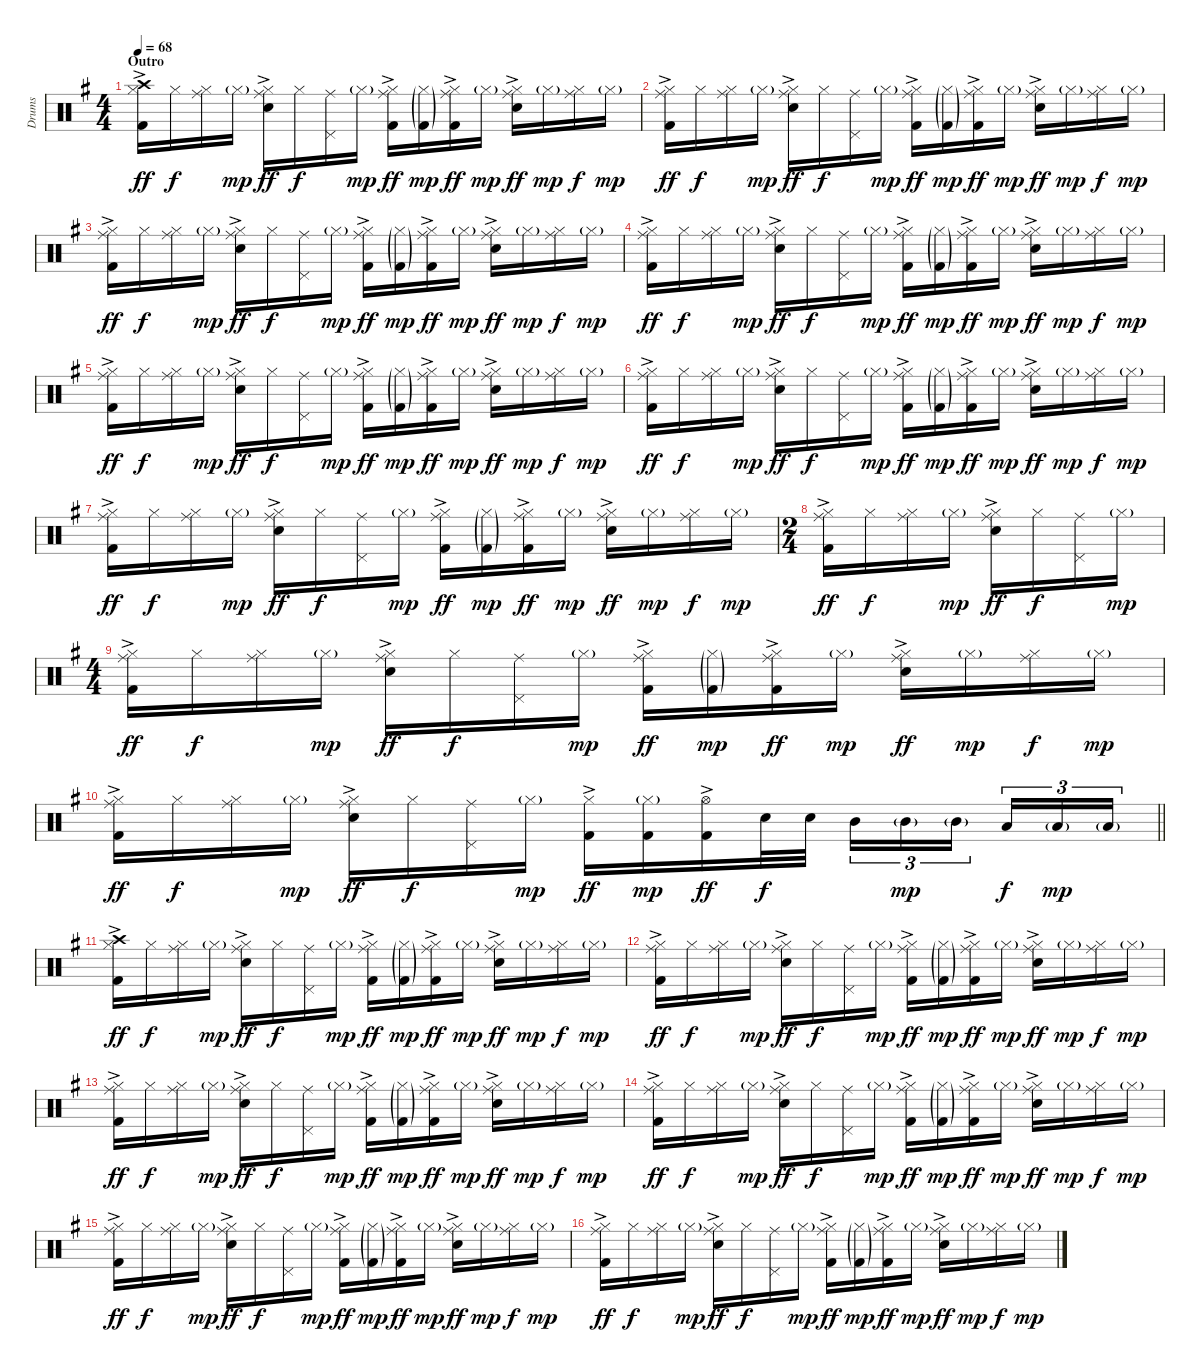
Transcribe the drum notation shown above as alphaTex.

\track ("Drums" "Drums") {instrument percussion}
\staff {score}
\articulation defaults
\ts (4 4)
\section ("" "Outro")
\tempo 68
\clef neutral
\ks g
("Hi-Hat (closed)" "Crash high (hit)" "Kick (hit) 2"{ac}).16{dy ff} "Hi-Hat (closed)".16{dy f} ("Hi-Hat (closed)" "Ride (middle)").16 "Hi-Hat (closed)"{g}.16{dy mp} ("Hi-Hat (closed)" "Ride (middle)" "Snare (hit) 2"{ac}).16{dy ff} "Hi-Hat (closed)".16{dy f} ("Pedal Hi-Hat (hit)" "Ride (middle)").16 "Hi-Hat (closed)"{g}.16{dy mp} ("Hi-Hat (closed)" "Ride (middle)" "Kick (hit) 2"{ac}).16{dy ff} ("Hi-Hat (closed)"{g} "Kick (hit) 2"{g}).16{dy mp} ("Hi-Hat (closed)" "Ride (middle)" "Kick (hit) 2"{ac}).16{dy ff} "Hi-Hat (closed)"{g}.16{dy mp} ("Hi-Hat (closed)" "Ride (middle)" "Snare (hit) 2"{ac}).16{dy ff} "Hi-Hat (closed)"{g}.16{dy mp} ("Hi-Hat (closed)" "Ride (middle)").16{dy f} "Hi-Hat (closed)"{g}.16{dy mp} |
("Hi-Hat (closed)" "Ride (middle)" "Kick (hit) 2"{ac}).16{dy ff} "Hi-Hat (closed)".16{dy f} ("Hi-Hat (closed)" "Ride (middle)").16 "Hi-Hat (closed)"{g}.16{dy mp} ("Hi-Hat (closed)" "Ride (middle)" "Snare (hit) 2"{ac}).16{dy ff} "Hi-Hat (closed)".16{dy f} ("Pedal Hi-Hat (hit)" "Ride (middle)").16 "Hi-Hat (closed)"{g}.16{dy mp} ("Hi-Hat (closed)" "Ride (middle)" "Kick (hit) 2"{ac}).16{dy ff} ("Hi-Hat (closed)"{g} "Kick (hit) 2"{g}).16{dy mp} ("Hi-Hat (closed)" "Ride (middle)" "Kick (hit) 2"{ac}).16{dy ff} "Hi-Hat (closed)"{g}.16{dy mp} ("Hi-Hat (closed)" "Ride (middle)" "Snare (hit) 2"{ac}).16{dy ff} "Hi-Hat (closed)"{g}.16{dy mp} ("Hi-Hat (closed)" "Ride (middle)").16{dy f} "Hi-Hat (closed)"{g}.16{dy mp} |
("Hi-Hat (closed)" "Ride (middle)" "Kick (hit) 2"{ac}).16{dy ff} "Hi-Hat (closed)".16{dy f} ("Hi-Hat (closed)" "Ride (middle)").16 "Hi-Hat (closed)"{g}.16{dy mp} ("Hi-Hat (closed)" "Ride (middle)" "Snare (hit) 2"{ac}).16{dy ff} "Hi-Hat (closed)".16{dy f} ("Pedal Hi-Hat (hit)" "Ride (middle)").16 "Hi-Hat (closed)"{g}.16{dy mp} ("Hi-Hat (closed)" "Ride (middle)" "Kick (hit) 2"{ac}).16{dy ff} ("Hi-Hat (closed)"{g} "Kick (hit) 2"{g}).16{dy mp} ("Hi-Hat (closed)" "Ride (middle)" "Kick (hit) 2"{ac}).16{dy ff} "Hi-Hat (closed)"{g}.16{dy mp} ("Hi-Hat (closed)" "Ride (middle)" "Snare (hit) 2"{ac}).16{dy ff} "Hi-Hat (closed)"{g}.16{dy mp} ("Hi-Hat (closed)" "Ride (middle)").16{dy f} "Hi-Hat (closed)"{g}.16{dy mp} |
("Hi-Hat (closed)" "Ride (middle)" "Kick (hit) 2"{ac}).16{dy ff} "Hi-Hat (closed)".16{dy f} ("Hi-Hat (closed)" "Ride (middle)").16 "Hi-Hat (closed)"{g}.16{dy mp} ("Hi-Hat (closed)" "Ride (middle)" "Snare (hit) 2"{ac}).16{dy ff} "Hi-Hat (closed)".16{dy f} ("Pedal Hi-Hat (hit)" "Ride (middle)").16 "Hi-Hat (closed)"{g}.16{dy mp} ("Hi-Hat (closed)" "Ride (middle)" "Kick (hit) 2"{ac}).16{dy ff} ("Hi-Hat (closed)"{g} "Kick (hit) 2"{g}).16{dy mp} ("Hi-Hat (closed)" "Ride (middle)" "Kick (hit) 2"{ac}).16{dy ff} "Hi-Hat (closed)"{g}.16{dy mp} ("Hi-Hat (closed)" "Ride (middle)" "Snare (hit) 2"{ac}).16{dy ff} "Hi-Hat (closed)"{g}.16{dy mp} ("Hi-Hat (closed)" "Ride (middle)").16{dy f} "Hi-Hat (closed)"{g}.16{dy mp} |
("Hi-Hat (closed)" "Ride (middle)" "Kick (hit) 2"{ac}).16{dy ff} "Hi-Hat (closed)".16{dy f} ("Hi-Hat (closed)" "Ride (middle)").16 "Hi-Hat (closed)"{g}.16{dy mp} ("Hi-Hat (closed)" "Ride (middle)" "Snare (hit) 2"{ac}).16{dy ff} "Hi-Hat (closed)".16{dy f} ("Pedal Hi-Hat (hit)" "Ride (middle)").16 "Hi-Hat (closed)"{g}.16{dy mp} ("Hi-Hat (closed)" "Ride (middle)" "Kick (hit) 2"{ac}).16{dy ff} ("Hi-Hat (closed)"{g} "Kick (hit) 2"{g}).16{dy mp} ("Hi-Hat (closed)" "Ride (middle)" "Kick (hit) 2"{ac}).16{dy ff} "Hi-Hat (closed)"{g}.16{dy mp} ("Hi-Hat (closed)" "Ride (middle)" "Snare (hit) 2"{ac}).16{dy ff} "Hi-Hat (closed)"{g}.16{dy mp} ("Hi-Hat (closed)" "Ride (middle)").16{dy f} "Hi-Hat (closed)"{g}.16{dy mp} |
("Hi-Hat (closed)" "Ride (middle)" "Kick (hit) 2"{ac}).16{dy ff} "Hi-Hat (closed)".16{dy f} ("Hi-Hat (closed)" "Ride (middle)").16 "Hi-Hat (closed)"{g}.16{dy mp} ("Hi-Hat (closed)" "Ride (middle)" "Snare (hit) 2"{ac}).16{dy ff} "Hi-Hat (closed)".16{dy f} ("Pedal Hi-Hat (hit)" "Ride (middle)").16 "Hi-Hat (closed)"{g}.16{dy mp} ("Hi-Hat (closed)" "Ride (middle)" "Kick (hit) 2"{ac}).16{dy ff} ("Hi-Hat (closed)"{g} "Kick (hit) 2"{g}).16{dy mp} ("Hi-Hat (closed)" "Ride (middle)" "Kick (hit) 2"{ac}).16{dy ff} "Hi-Hat (closed)"{g}.16{dy mp} ("Hi-Hat (closed)" "Ride (middle)" "Snare (hit) 2"{ac}).16{dy ff} "Hi-Hat (closed)"{g}.16{dy mp} ("Hi-Hat (closed)" "Ride (middle)").16{dy f} "Hi-Hat (closed)"{g}.16{dy mp} |
("Hi-Hat (closed)" "Ride (middle)" "Kick (hit) 2"{ac}).16{dy ff} "Hi-Hat (closed)".16{dy f} ("Hi-Hat (closed)" "Ride (middle)").16 "Hi-Hat (closed)"{g}.16{dy mp} ("Hi-Hat (closed)" "Ride (middle)" "Snare (hit) 2"{ac}).16{dy ff} "Hi-Hat (closed)".16{dy f} ("Pedal Hi-Hat (hit)" "Ride (middle)").16 "Hi-Hat (closed)"{g}.16{dy mp} ("Hi-Hat (closed)" "Ride (middle)" "Kick (hit) 2"{ac}).16{dy ff} ("Hi-Hat (closed)"{g} "Kick (hit) 2"{g}).16{dy mp} ("Hi-Hat (closed)" "Ride (middle)" "Kick (hit) 2"{ac}).16{dy ff} "Hi-Hat (closed)"{g}.16{dy mp} ("Hi-Hat (closed)" "Ride (middle)" "Snare (hit) 2"{ac}).16{dy ff} "Hi-Hat (closed)"{g}.16{dy mp} ("Hi-Hat (closed)" "Ride (middle)").16{dy f} "Hi-Hat (closed)"{g}.16{dy mp} |
\ts (2 4)
("Hi-Hat (closed)" "Ride (middle)" "Kick (hit) 2"{ac}).16{dy ff} "Hi-Hat (closed)".16{dy f} ("Hi-Hat (closed)" "Ride (middle)").16 "Hi-Hat (closed)"{g}.16{dy mp} ("Hi-Hat (closed)" "Ride (middle)" "Snare (hit) 2"{ac}).16{dy ff} "Hi-Hat (closed)".16{dy f} ("Pedal Hi-Hat (hit)" "Ride (middle)").16 "Hi-Hat (closed)"{g}.16{dy mp} |
\ts (4 4)
("Hi-Hat (closed)" "Ride (middle)" "Kick (hit) 2"{ac}).16{dy ff} "Hi-Hat (closed)".16{dy f} ("Hi-Hat (closed)" "Ride (middle)").16 "Hi-Hat (closed)"{g}.16{dy mp} ("Hi-Hat (closed)" "Ride (middle)" "Snare (hit) 2"{ac}).16{dy ff} "Hi-Hat (closed)".16{dy f} ("Pedal Hi-Hat (hit)" "Ride (middle)").16 "Hi-Hat (closed)"{g}.16{dy mp} ("Hi-Hat (closed)" "Ride (middle)" "Kick (hit) 2"{ac}).16{dy ff} ("Hi-Hat (closed)"{g} "Kick (hit) 2"{g}).16{dy mp} ("Hi-Hat (closed)" "Ride (middle)" "Kick (hit) 2"{ac}).16{dy ff} "Hi-Hat (closed)"{g}.16{dy mp} ("Hi-Hat (closed)" "Ride (middle)" "Snare (hit) 2"{ac}).16{dy ff} "Hi-Hat (closed)"{g}.16{dy mp} ("Hi-Hat (closed)" "Ride (middle)").16{dy f} "Hi-Hat (closed)"{g}.16{dy mp} |
\barLineRight lightlight
("Hi-Hat (closed)" "Ride (middle)" "Kick (hit) 2"{ac}).16{dy ff} "Hi-Hat (closed)".16{dy f} ("Hi-Hat (closed)" "Ride (middle)").16 "Hi-Hat (closed)"{g}.16{dy mp} ("Hi-Hat (closed)" "Ride (middle)" "Snare (hit) 2"{ac}).16{dy ff} "Hi-Hat (closed)".16{dy f} ("Pedal Hi-Hat (hit)" "Ride (middle)").16 "Hi-Hat (closed)"{g}.16{dy mp} ("Hi-Hat (closed)" "Kick (hit) 2"{ac}).16{dy ff} ("Hi-Hat (closed)"{g} "Kick (hit) 2").16{dy mp} ("Hi-Hat (open)" "Kick (hit) 2"{ac}).16{dy ff} "Snare (hit) 2".32{dy f} "Snare (hit) 2".32 "Mid Tom (hit)".16{tu (3 2)} "Mid Tom (hit)"{g}.16{tu (3 2) dy mp} "Mid Tom (hit)"{g}.16{tu (3 2) beam splitsecondary} "Low Tom (hit)".16{tu (3 2) dy f} "Low Tom (hit)"{g}.16{tu (3 2) dy mp} "Low Floor Tom (hit)"{g}.16{tu (3 2)} |
("Hi-Hat (closed)" "Crash high (hit)" "Kick (hit) 2"{ac}).16{dy ff} "Hi-Hat (closed)".16{dy f} ("Hi-Hat (closed)" "Ride (middle)").16 "Hi-Hat (closed)"{g}.16{dy mp} ("Hi-Hat (closed)" "Ride (middle)" "Snare (hit) 2"{ac}).16{dy ff} "Hi-Hat (closed)".16{dy f} ("Pedal Hi-Hat (hit)" "Ride (middle)").16 "Hi-Hat (closed)"{g}.16{dy mp} ("Hi-Hat (closed)" "Ride (middle)" "Kick (hit) 2"{ac}).16{dy ff} ("Hi-Hat (closed)"{g} "Kick (hit) 2"{g}).16{dy mp} ("Hi-Hat (closed)" "Ride (middle)" "Kick (hit) 2"{ac}).16{dy ff} "Hi-Hat (closed)"{g}.16{dy mp} ("Hi-Hat (closed)" "Ride (middle)" "Snare (hit) 2"{ac}).16{dy ff} "Hi-Hat (closed)"{g}.16{dy mp} ("Hi-Hat (closed)" "Ride (middle)").16{dy f} "Hi-Hat (closed)"{g}.16{dy mp} |
("Hi-Hat (closed)" "Ride (middle)" "Kick (hit) 2"{ac}).16{dy ff} "Hi-Hat (closed)".16{dy f} ("Hi-Hat (closed)" "Ride (middle)").16 "Hi-Hat (closed)"{g}.16{dy mp} ("Hi-Hat (closed)" "Ride (middle)" "Snare (hit) 2"{ac}).16{dy ff} "Hi-Hat (closed)".16{dy f} ("Pedal Hi-Hat (hit)" "Ride (middle)").16 "Hi-Hat (closed)"{g}.16{dy mp} ("Hi-Hat (closed)" "Ride (middle)" "Kick (hit) 2"{ac}).16{dy ff} ("Hi-Hat (closed)"{g} "Kick (hit) 2"{g}).16{dy mp} ("Hi-Hat (closed)" "Ride (middle)" "Kick (hit) 2"{ac}).16{dy ff} "Hi-Hat (closed)"{g}.16{dy mp} ("Hi-Hat (closed)" "Ride (middle)" "Snare (hit) 2"{ac}).16{dy ff} "Hi-Hat (closed)"{g}.16{dy mp} ("Hi-Hat (closed)" "Ride (middle)").16{dy f} "Hi-Hat (closed)"{g}.16{dy mp} |
("Hi-Hat (closed)" "Ride (middle)" "Kick (hit) 2"{ac}).16{dy ff} "Hi-Hat (closed)".16{dy f} ("Hi-Hat (closed)" "Ride (middle)").16 "Hi-Hat (closed)"{g}.16{dy mp} ("Hi-Hat (closed)" "Ride (middle)" "Snare (hit) 2"{ac}).16{dy ff} "Hi-Hat (closed)".16{dy f} ("Pedal Hi-Hat (hit)" "Ride (middle)").16 "Hi-Hat (closed)"{g}.16{dy mp} ("Hi-Hat (closed)" "Ride (middle)" "Kick (hit) 2"{ac}).16{dy ff} ("Hi-Hat (closed)"{g} "Kick (hit) 2"{g}).16{dy mp} ("Hi-Hat (closed)" "Ride (middle)" "Kick (hit) 2"{ac}).16{dy ff} "Hi-Hat (closed)"{g}.16{dy mp} ("Hi-Hat (closed)" "Ride (middle)" "Snare (hit) 2"{ac}).16{dy ff} "Hi-Hat (closed)"{g}.16{dy mp} ("Hi-Hat (closed)" "Ride (middle)").16{dy f} "Hi-Hat (closed)"{g}.16{dy mp} |
("Hi-Hat (closed)" "Ride (middle)" "Kick (hit) 2"{ac}).16{dy ff} "Hi-Hat (closed)".16{dy f} ("Hi-Hat (closed)" "Ride (middle)").16 "Hi-Hat (closed)"{g}.16{dy mp} ("Hi-Hat (closed)" "Ride (middle)" "Snare (hit) 2"{ac}).16{dy ff} "Hi-Hat (closed)".16{dy f} ("Pedal Hi-Hat (hit)" "Ride (middle)").16 "Hi-Hat (closed)"{g}.16{dy mp} ("Hi-Hat (closed)" "Ride (middle)" "Kick (hit) 2"{ac}).16{dy ff} ("Hi-Hat (closed)"{g} "Kick (hit) 2"{g}).16{dy mp} ("Hi-Hat (closed)" "Ride (middle)" "Kick (hit) 2"{ac}).16{dy ff} "Hi-Hat (closed)"{g}.16{dy mp} ("Hi-Hat (closed)" "Ride (middle)" "Snare (hit) 2"{ac}).16{dy ff} "Hi-Hat (closed)"{g}.16{dy mp} ("Hi-Hat (closed)" "Ride (middle)").16{dy f} "Hi-Hat (closed)"{g}.16{dy mp} |
("Hi-Hat (closed)" "Ride (middle)" "Kick (hit) 2"{ac}).16{dy ff} "Hi-Hat (closed)".16{dy f} ("Hi-Hat (closed)" "Ride (middle)").16 "Hi-Hat (closed)"{g}.16{dy mp} ("Hi-Hat (closed)" "Ride (middle)" "Snare (hit) 2"{ac}).16{dy ff} "Hi-Hat (closed)".16{dy f} ("Pedal Hi-Hat (hit)" "Ride (middle)").16 "Hi-Hat (closed)"{g}.16{dy mp} ("Hi-Hat (closed)" "Ride (middle)" "Kick (hit) 2"{ac}).16{dy ff} ("Hi-Hat (closed)"{g} "Kick (hit) 2"{g}).16{dy mp} ("Hi-Hat (closed)" "Ride (middle)" "Kick (hit) 2"{ac}).16{dy ff} "Hi-Hat (closed)"{g}.16{dy mp} ("Hi-Hat (closed)" "Ride (middle)" "Snare (hit) 2"{ac}).16{dy ff} "Hi-Hat (closed)"{g}.16{dy mp} ("Hi-Hat (closed)" "Ride (middle)").16{dy f} "Hi-Hat (closed)"{g}.16{dy mp} |
("Hi-Hat (closed)" "Ride (middle)" "Kick (hit) 2"{ac}).16{dy ff} "Hi-Hat (closed)".16{dy f} ("Hi-Hat (closed)" "Ride (middle)").16 "Hi-Hat (closed)"{g}.16{dy mp} ("Hi-Hat (closed)" "Ride (middle)" "Snare (hit) 2"{ac}).16{dy ff} "Hi-Hat (closed)".16{dy f} ("Pedal Hi-Hat (hit)" "Ride (middle)").16 "Hi-Hat (closed)"{g}.16{dy mp} ("Hi-Hat (closed)" "Ride (middle)" "Kick (hit) 2"{ac}).16{dy ff} ("Hi-Hat (closed)"{g} "Kick (hit) 2"{g}).16{dy mp} ("Hi-Hat (closed)" "Ride (middle)" "Kick (hit) 2"{ac}).16{dy ff} "Hi-Hat (closed)"{g}.16{dy mp} ("Hi-Hat (closed)" "Ride (middle)" "Snare (hit) 2"{ac}).16{dy ff} "Hi-Hat (closed)"{g}.16{dy mp} ("Hi-Hat (closed)" "Ride (middle)").16{dy f} "Hi-Hat (closed)"{g}.16{dy mp}
